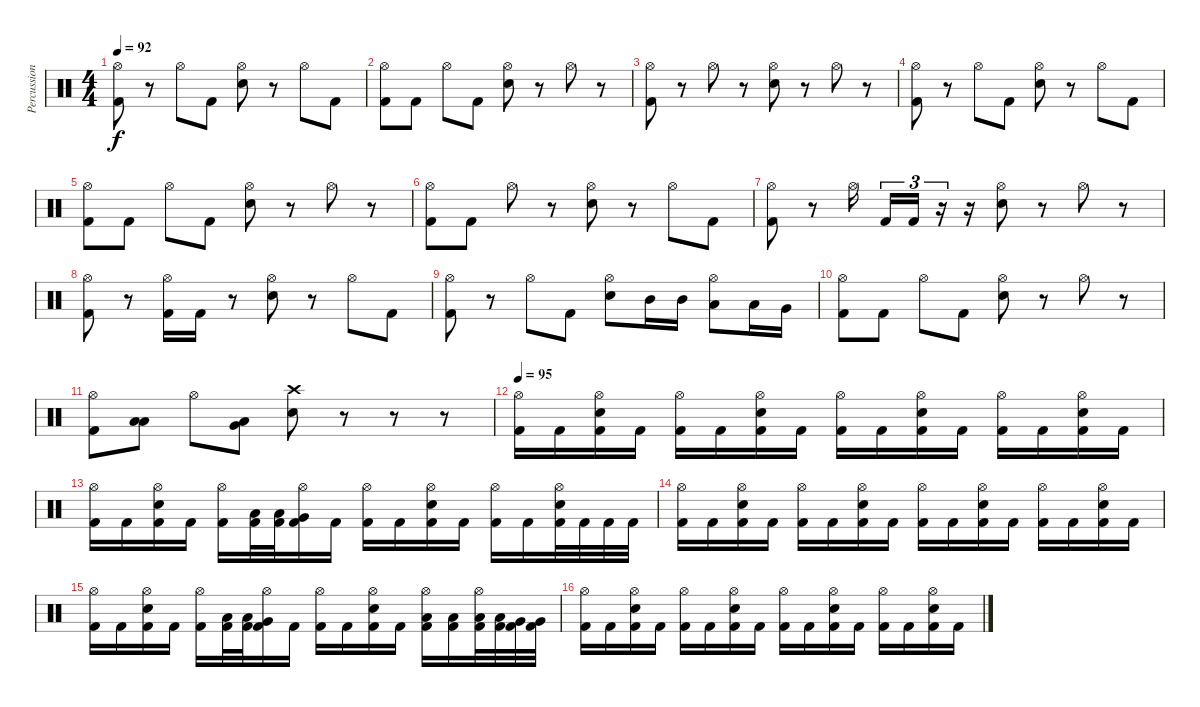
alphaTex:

\track ("Percussion" "Percussion") {instrument percussion}
\staff {score}
\articulation defaults
\ts (4 4)
\tempo 92
\clef neutral
\ks c
("Hi-Hat (open)" "Kick (hit) 2").8{dy f} r.8 "Hi-Hat (open)".8 "Kick (hit) 2".8 ("Hi-Hat (open)" "Electric Snare (hit)").8 r.8 "Hi-Hat (open)".8 "Kick (hit) 2".8 |
("Hi-Hat (open)" "Kick (hit) 2").8 "Kick (hit) 2".8 "Hi-Hat (open)".8 "Kick (hit) 2".8 ("Hi-Hat (open)" "Electric Snare (hit)").8 r.8 "Hi-Hat (open)".8 r.8 |
("Hi-Hat (open)" "Kick (hit) 2").8 r.8 "Hi-Hat (open)".8 r.8 ("Hi-Hat (open)" "Electric Snare (hit)").8 r.8 "Hi-Hat (open)".8 r.8 |
("Hi-Hat (open)" "Kick (hit) 2").8 r.8 "Hi-Hat (open)".8 "Kick (hit) 2".8 ("Hi-Hat (open)" "Electric Snare (hit)").8 r.8 "Hi-Hat (open)".8 "Kick (hit) 2".8 |
("Hi-Hat (open)" "Kick (hit) 2").8 "Kick (hit) 2".8 "Hi-Hat (open)".8 "Kick (hit) 2".8 ("Hi-Hat (open)" "Electric Snare (hit)").8 r.8 "Hi-Hat (open)".8 r.8 |
("Hi-Hat (open)" "Kick (hit) 2").8 "Kick (hit) 2".8 "Hi-Hat (open)".8 r.8 ("Hi-Hat (open)" "Electric Snare (hit)").8 r.8 "Hi-Hat (open)".8 "Kick (hit) 2".8 |
("Hi-Hat (open)" "Kick (hit) 2").8 r.8 "Hi-Hat (open)".16{beam splitsecondary} "Kick (hit) 2".16{tu (3 2)} "Kick (hit) 2".16{tu (3 2)} r.16{tu (3 2)} r.16 ("Hi-Hat (open)" "Electric Snare (hit)").8 r.8 "Hi-Hat (open)".8 r.8 |
("Hi-Hat (open)" "Kick (hit) 2").8 r.8 ("Hi-Hat (open)" "Kick (hit) 2").16 "Kick (hit) 2".16 r.8 ("Hi-Hat (open)" "Electric Snare (hit)").8 r.8 "Hi-Hat (open)".8 "Kick (hit) 2".8 |
("Hi-Hat (open)" "Kick (hit) 2").8 r.8 "Hi-Hat (open)".8 "Kick (hit) 2".8 ("Hi-Hat (open)" "Electric Snare (hit)").8 "Mid Tom (hit)".16 "Mid Tom (hit)".16 ("Low Tom (hit)" "Hi-Hat (open)").8 "Low Tom (hit)".16 "Very Low Tom (hit)".16 |
("Hi-Hat (open)" "Kick (hit) 2").8 "Kick (hit) 2".8 "Hi-Hat (open)".8 "Kick (hit) 2".8 ("Hi-Hat (open)" "Electric Snare (hit)").8 r.8 "Hi-Hat (open)".8 r.8 |
("Hi-Hat (open)" "Kick (hit) 2").8 ("Low Tom (hit)" "Low Tom (hit)").8 "Hi-Hat (open)".8 ("Very Low Tom (hit)" "Low Floor Tom (hit)").8 ("Crash high (hit)" "Electric Snare (hit)").8 r.8 r.8 r.8 |
\tempo 95
("Kick (hit) 2" "Hi-Hat (open)").16 "Kick (hit) 2".16 ("Kick (hit) 2" "Electric Snare (hit)" "Hi-Hat (open)").16 "Kick (hit) 2".16 ("Kick (hit) 2" "Hi-Hat (open)").16 "Kick (hit) 2".16 ("Kick (hit) 2" "Electric Snare (hit)" "Hi-Hat (open)").16 "Kick (hit) 2".16 ("Kick (hit) 2" "Hi-Hat (open)").16 "Kick (hit) 2".16 ("Kick (hit) 2" "Electric Snare (hit)" "Hi-Hat (open)").16 "Kick (hit) 2".16 ("Kick (hit) 2" "Hi-Hat (open)").16 "Kick (hit) 2".16 ("Kick (hit) 2" "Electric Snare (hit)" "Hi-Hat (open)").16 "Kick (hit) 2".16 |
("Kick (hit) 2" "Hi-Hat (open)").16 "Kick (hit) 2".16 ("Kick (hit) 2" "Electric Snare (hit)" "Hi-Hat (open)").16 "Kick (hit) 2".16 ("Kick (hit) 2" "Hi-Hat (open)").16 ("Kick (hit) 2" "Low Tom (hit)").32 ("Kick (hit) 2" "Low Tom (hit)").32 ("Kick (hit) 2" "Very Low Tom (hit)" "Hi-Hat (open)").16 "Kick (hit) 2".16 ("Kick (hit) 2" "Hi-Hat (open)").16 "Kick (hit) 2".16 ("Kick (hit) 2" "Electric Snare (hit)" "Hi-Hat (open)").16 "Kick (hit) 2".16 ("Kick (hit) 2" "Hi-Hat (open)").16 "Kick (hit) 2".16 ("Kick (hit) 2" "Electric Snare (hit)" "Hi-Hat (open)").32 "Kick (hit) 2".32 "Kick (hit) 2".32 "Kick (hit) 2".32 |
("Kick (hit) 2" "Hi-Hat (open)").16 "Kick (hit) 2".16 ("Kick (hit) 2" "Electric Snare (hit)" "Hi-Hat (open)").16 "Kick (hit) 2".16 ("Kick (hit) 2" "Hi-Hat (open)").16 "Kick (hit) 2".16 ("Kick (hit) 2" "Electric Snare (hit)" "Hi-Hat (open)").16 "Kick (hit) 2".16 ("Kick (hit) 2" "Hi-Hat (open)").16 "Kick (hit) 2".16 ("Kick (hit) 2" "Electric Snare (hit)" "Hi-Hat (open)").16 "Kick (hit) 2".16 ("Kick (hit) 2" "Hi-Hat (open)").16 "Kick (hit) 2".16 ("Kick (hit) 2" "Electric Snare (hit)" "Hi-Hat (open)").16 "Kick (hit) 2".16 |
("Kick (hit) 2" "Hi-Hat (open)").16 "Kick (hit) 2".16 ("Kick (hit) 2" "Electric Snare (hit)" "Hi-Hat (open)").16 "Kick (hit) 2".16 ("Kick (hit) 2" "Hi-Hat (open)").16 ("Kick (hit) 2" "Low Tom (hit)").32 ("Kick (hit) 2" "Low Tom (hit)").32 ("Kick (hit) 2" "Very Low Tom (hit)" "Hi-Hat (open)").16 "Kick (hit) 2".16 ("Kick (hit) 2" "Hi-Hat (open)").16 "Kick (hit) 2".16 ("Kick (hit) 2" "Electric Snare (hit)" "Hi-Hat (open)").16 "Kick (hit) 2".16 ("Kick (hit) 2" "Low Tom (hit)" "Hi-Hat (open)").16 ("Kick (hit) 2" "Low Tom (hit)").16 ("Kick (hit) 2" "Low Tom (hit)" "Hi-Hat (open)").32 ("Kick (hit) 2" "Low Tom (hit)").32 ("Kick (hit) 2" "Very Low Tom (hit)").32 ("Kick (hit) 2" "Very Low Tom (hit)").32 |
("Kick (hit) 2" "Hi-Hat (open)").16 "Kick (hit) 2".16 ("Kick (hit) 2" "Electric Snare (hit)" "Hi-Hat (open)").16 "Kick (hit) 2".16 ("Kick (hit) 2" "Hi-Hat (open)").16 "Kick (hit) 2".16 ("Kick (hit) 2" "Electric Snare (hit)" "Hi-Hat (open)").16 "Kick (hit) 2".16 ("Kick (hit) 2" "Hi-Hat (open)").16 "Kick (hit) 2".16 ("Kick (hit) 2" "Electric Snare (hit)" "Hi-Hat (open)").16 "Kick (hit) 2".16 ("Kick (hit) 2" "Hi-Hat (open)").16 "Kick (hit) 2".16 ("Kick (hit) 2" "Electric Snare (hit)" "Hi-Hat (open)").16 "Kick (hit) 2".16
